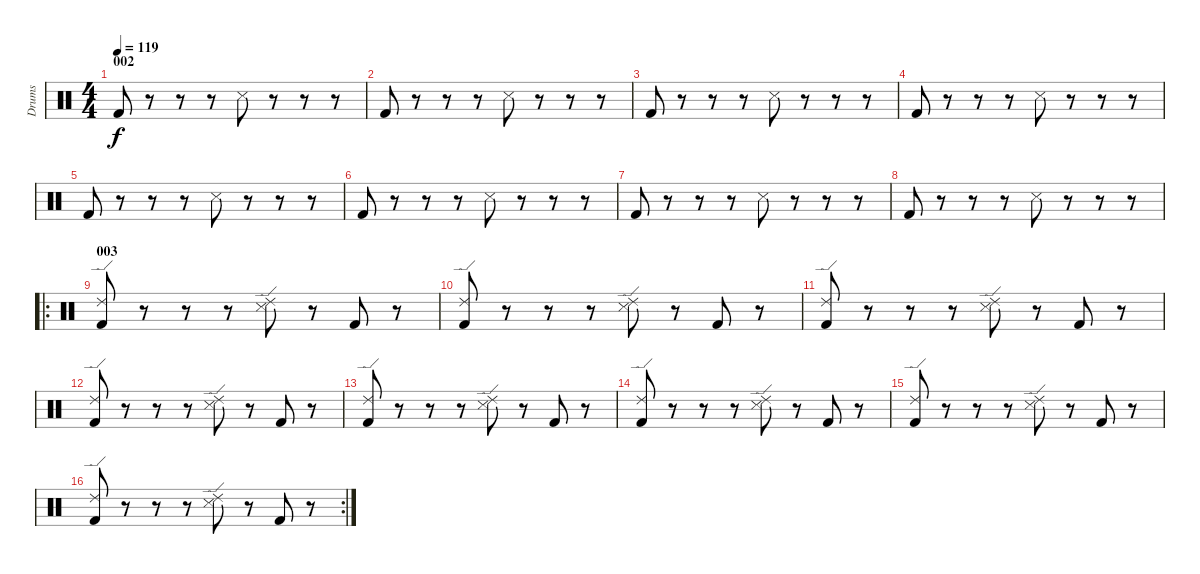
\track ("Drums" "Drums") {instrument percussion}
\staff {score}
\articulation defaults
\ts (4 4)
\section ("" "002")
\tempo 119
\clef neutral
\ks c "Kick (hit) 2".8{dy f}
r.8 r.8 r.8 "Snare (side stick) 3".8 r.8 r.8 r.8 |
"Kick (hit) 2".8 r.8 r.8 r.8 "Snare (side stick) 3".8 r.8 r.8 r.8 |
"Kick (hit) 2".8 r.8 r.8 r.8 "Snare (side stick) 3".8 r.8 r.8 r.8 |
"Kick (hit) 2".8 r.8 r.8 r.8 "Snare (side stick) 3".8 r.8 r.8 r.8 |
"Kick (hit) 2".8 r.8 r.8 r.8 "Snare (side stick) 3".8 r.8 r.8 r.8 |
"Kick (hit) 2".8 r.8 r.8 r.8 "Snare (side stick) 3".8 r.8 r.8 r.8 |
"Kick (hit) 2".8 r.8 r.8 r.8 "Snare (side stick) 3".8 r.8 r.8 r.8 |
"Kick (hit) 2".8 r.8 r.8 r.8 "Snare (side stick) 3".8 r.8 r.8 r.8 |
\ro
\section ("" "003")
("Kick (hit) 2" "Ride (edge) 2").8 r.8 r.8 r.8 ("Snare (side stick) 3" "Ride (edge) 2").8 r.8 "Kick (hit) 2".8 r.8 |
("Kick (hit) 2" "Ride (edge) 2").8 r.8 r.8 r.8 ("Snare (side stick) 3" "Ride (edge) 2").8 r.8 "Kick (hit) 2".8 r.8 |
("Kick (hit) 2" "Ride (edge) 2").8 r.8 r.8 r.8 ("Snare (side stick) 3" "Ride (edge) 2").8 r.8 "Kick (hit) 2".8 r.8 |
("Kick (hit) 2" "Ride (edge) 2").8 r.8 r.8 r.8 ("Snare (side stick) 3" "Ride (edge) 2").8 r.8 "Kick (hit) 2".8 r.8 |
("Kick (hit) 2" "Ride (edge) 2").8 r.8 r.8 r.8 ("Snare (side stick) 3" "Ride (edge) 2").8 r.8 "Kick (hit) 2".8 r.8 |
("Kick (hit) 2" "Ride (edge) 2").8 r.8 r.8 r.8 ("Snare (side stick) 3" "Ride (edge) 2").8 r.8 "Kick (hit) 2".8 r.8 |
("Kick (hit) 2" "Ride (edge) 2").8 r.8 r.8 r.8 ("Snare (side stick) 3" "Ride (edge) 2").8 r.8 "Kick (hit) 2".8 r.8 |
\rc 2
("Kick (hit) 2" "Ride (edge) 2").8 r.8 r.8 r.8 ("Snare (side stick) 3" "Ride (edge) 2").8 r.8 "Kick (hit) 2".8 r.8
